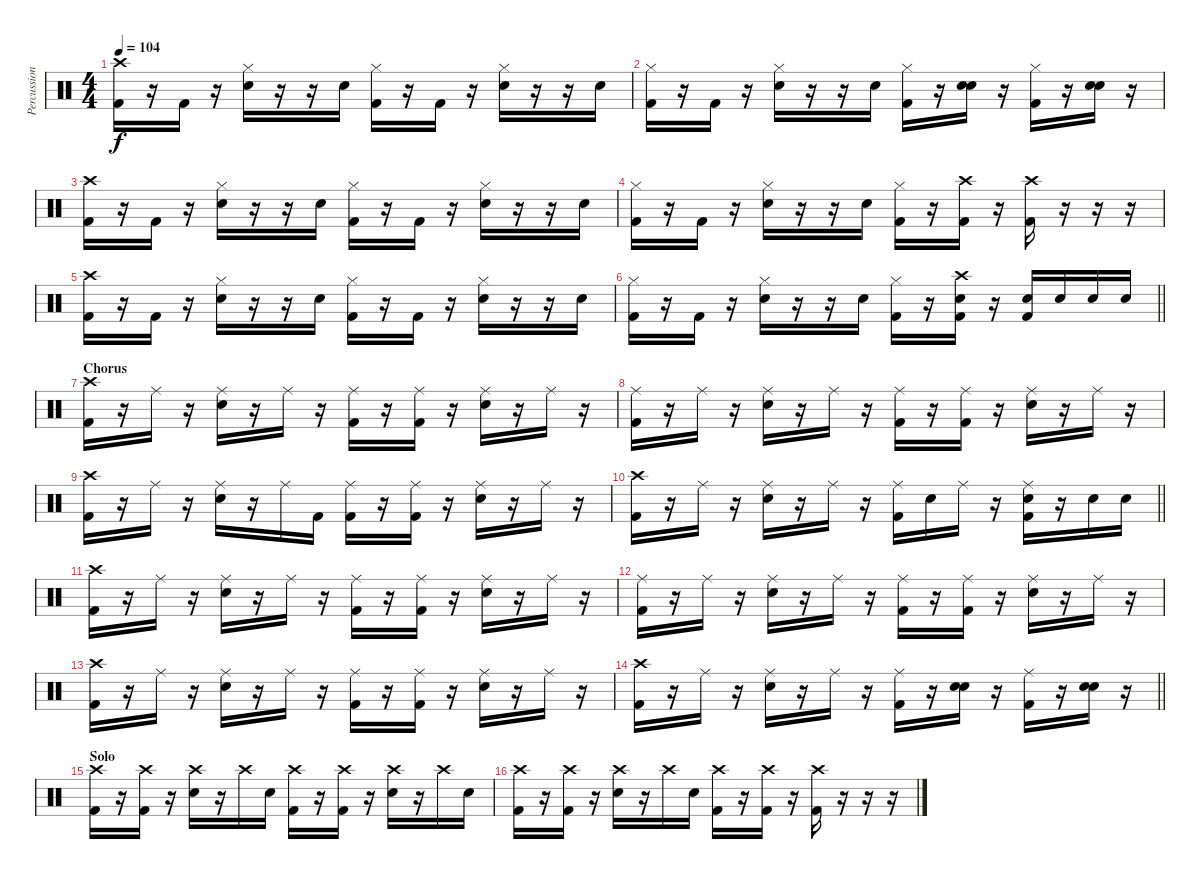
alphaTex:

\track ("Percussion" "Percussion") {instrument percussion}
\staff {score}
\articulation defaults
\ts (4 4)
\tempo 104
\clef neutral
\ks c
("Crash high (hit)" "Kick (hit) 2").16{dy f} r.16 "Kick (hit) 2".16 r.16 ("Electric Snare (hit)" "Hi-Hat (closed)").16 r.16 r.16 "Electric Snare (hit)".16 ("Hi-Hat (closed)" "Kick (hit) 2").16 r.16 "Kick (hit) 2".16 r.16 ("Electric Snare (hit)" "Hi-Hat (closed)").16 r.16 r.16 "Electric Snare (hit)".16 |
("Hi-Hat (closed)" "Kick (hit) 2").16 r.16 "Kick (hit) 2".16 r.16 ("Electric Snare (hit)" "Hi-Hat (closed)").16 r.16 r.16 "Electric Snare (hit)".16 ("Hi-Hat (closed)" "Kick (hit) 2").16 r.16 ("Electric Snare (hit)" "Electric Snare (hit)").16 r.16 ("Hi-Hat (closed)" "Kick (hit) 2").16 r.16 ("Electric Snare (hit)" "Electric Snare (hit)").16 r.16 |
("Crash high (hit)" "Kick (hit) 2").16 r.16 "Kick (hit) 2".16 r.16 ("Electric Snare (hit)" "Hi-Hat (closed)").16 r.16 r.16 "Electric Snare (hit)".16 ("Hi-Hat (closed)" "Kick (hit) 2").16 r.16 "Kick (hit) 2".16 r.16 ("Electric Snare (hit)" "Hi-Hat (closed)").16 r.16 r.16 "Electric Snare (hit)".16 |
("Hi-Hat (closed)" "Kick (hit) 2").16 r.16 "Kick (hit) 2".16 r.16 ("Electric Snare (hit)" "Hi-Hat (closed)").16 r.16 r.16 "Electric Snare (hit)".16 ("Hi-Hat (closed)" "Kick (hit) 2").16 r.16 ("Crash high (hit)" "Kick (hit) 2").16 r.16 ("Crash high (hit)" "Kick (hit) 2").16 r.16 r.16 r.16 |
("Crash high (hit)" "Kick (hit) 2").16 r.16 "Kick (hit) 2".16 r.16 ("Electric Snare (hit)" "Hi-Hat (closed)").16 r.16 r.16 "Electric Snare (hit)".16 ("Hi-Hat (closed)" "Kick (hit) 2").16 r.16 "Kick (hit) 2".16 r.16 ("Electric Snare (hit)" "Hi-Hat (closed)").16 r.16 r.16 "Electric Snare (hit)".16 |
\barLineRight lightlight
("Hi-Hat (closed)" "Kick (hit) 2").16 r.16 "Kick (hit) 2".16 r.16 ("Electric Snare (hit)" "Hi-Hat (closed)").16 r.16 r.16 "Electric Snare (hit)".16 ("Hi-Hat (closed)" "Kick (hit) 2").16 r.16 ("Electric Snare (hit)" "Crash high (hit)" "Kick (hit) 2").16 r.16 ("Electric Snare (hit)" "Kick (hit) 2").16 "Electric Snare (hit)".16 "Electric Snare (hit)".16 "Electric Snare (hit)".16 |
\section ("" "Chorus")
("Crash high (hit)" "Kick (hit) 2").16 r.16 "Ride (middle)".16 r.16 ("Electric Snare (hit)" "Ride (middle)").16 r.16 "Ride (middle)".16 r.16 ("Ride (middle)" "Kick (hit) 2").16 r.16 ("Ride (middle)" "Kick (hit) 2").16 r.16 ("Electric Snare (hit)" "Ride (middle)").16 r.16 "Ride (middle)".16 r.16 |
("Ride (middle)" "Kick (hit) 2").16 r.16 "Ride (middle)".16 r.16 ("Electric Snare (hit)" "Ride (middle)").16 r.16 "Ride (middle)".16 r.16 ("Ride (middle)" "Kick (hit) 2").16 r.16 ("Ride (middle)" "Kick (hit) 2").16 r.16 ("Electric Snare (hit)" "Ride (middle)").16 r.16 "Ride (middle)".16 r.16 |
("Crash high (hit)" "Kick (hit) 2").16 r.16 "Ride (middle)".16 r.16 ("Electric Snare (hit)" "Ride (middle)").16 r.16 "Ride (middle)".16 "Kick (hit) 2".16 ("Ride (middle)" "Kick (hit) 2").16 r.16 ("Ride (middle)" "Kick (hit) 2").16 r.16 ("Electric Snare (hit)" "Ride (middle)").16 r.16 "Ride (middle)".16 r.16 |
\barLineRight lightlight
("Crash high (hit)" "Kick (hit) 2").16 r.16 "Ride (middle)".16 r.16 ("Electric Snare (hit)" "Ride (middle)").16 r.16 "Ride (middle)".16 r.16 ("Ride (middle)" "Kick (hit) 2").16 "Electric Snare (hit)".16 "Ride (middle)".16 r.16 ("Electric Snare (hit)" "Ride (middle)" "Kick (hit) 2").16 r.16 "Electric Snare (hit)".16 "Electric Snare (hit)".16 |
("Crash high (hit)" "Kick (hit) 2").16 r.16 "Ride (middle)".16 r.16 ("Electric Snare (hit)" "Ride (middle)").16 r.16 "Ride (middle)".16 r.16 ("Ride (middle)" "Kick (hit) 2").16 r.16 ("Ride (middle)" "Kick (hit) 2").16 r.16 ("Electric Snare (hit)" "Ride (middle)").16 r.16 "Ride (middle)".16 r.16 |
("Ride (middle)" "Kick (hit) 2").16 r.16 "Ride (middle)".16 r.16 ("Electric Snare (hit)" "Ride (middle)").16 r.16 "Ride (middle)".16 r.16 ("Ride (middle)" "Kick (hit) 2").16 r.16 ("Ride (middle)" "Kick (hit) 2").16 r.16 ("Electric Snare (hit)" "Ride (middle)").16 r.16 "Ride (middle)".16 r.16 |
("Crash high (hit)" "Kick (hit) 2").16 r.16 "Ride (middle)".16 r.16 ("Electric Snare (hit)" "Ride (middle)").16 r.16 "Ride (middle)".16 r.16 ("Ride (middle)" "Kick (hit) 2").16 r.16 ("Ride (middle)" "Kick (hit) 2").16 r.16 ("Electric Snare (hit)" "Ride (middle)").16 r.16 "Ride (middle)".16 r.16 |
\barLineRight lightlight
("Crash high (hit)" "Kick (hit) 2").16 r.16 "Ride (middle)".16 r.16 ("Electric Snare (hit)" "Ride (middle)").16 r.16 "Ride (middle)".16 r.16 ("Ride (middle)" "Kick (hit) 2").16 r.16 ("Electric Snare (hit)" "Electric Snare (hit)").16 r.16 ("Ride (middle)" "Kick (hit) 2").16 r.16 ("Electric Snare (hit)" "Electric Snare (hit)").16 r.16 |
\section ("" "Solo")
("Crash high (hit)" "Kick (hit) 2").16 r.16 ("Crash high (hit)" "Kick (hit) 2").16 r.16 ("Electric Snare (hit)" "Crash high (hit)").16 r.16 "Crash high (hit)".16 "Electric Snare (hit)".16 ("Crash high (hit)" "Kick (hit) 2").16 r.16 ("Crash high (hit)" "Kick (hit) 2").16 r.16 ("Electric Snare (hit)" "Crash high (hit)").16 r.16 "Crash high (hit)".16 "Electric Snare (hit)".16 |
("Crash high (hit)" "Kick (hit) 2").16 r.16 ("Crash high (hit)" "Kick (hit) 2").16 r.16 ("Electric Snare (hit)" "Crash high (hit)").16 r.16 "Crash high (hit)".16 "Electric Snare (hit)".16 ("Crash high (hit)" "Kick (hit) 2").16 r.16 ("Crash high (hit)" "Kick (hit) 2").16 r.16 ("Crash high (hit)" "Kick (hit) 2").16 r.16 r.16 r.16
